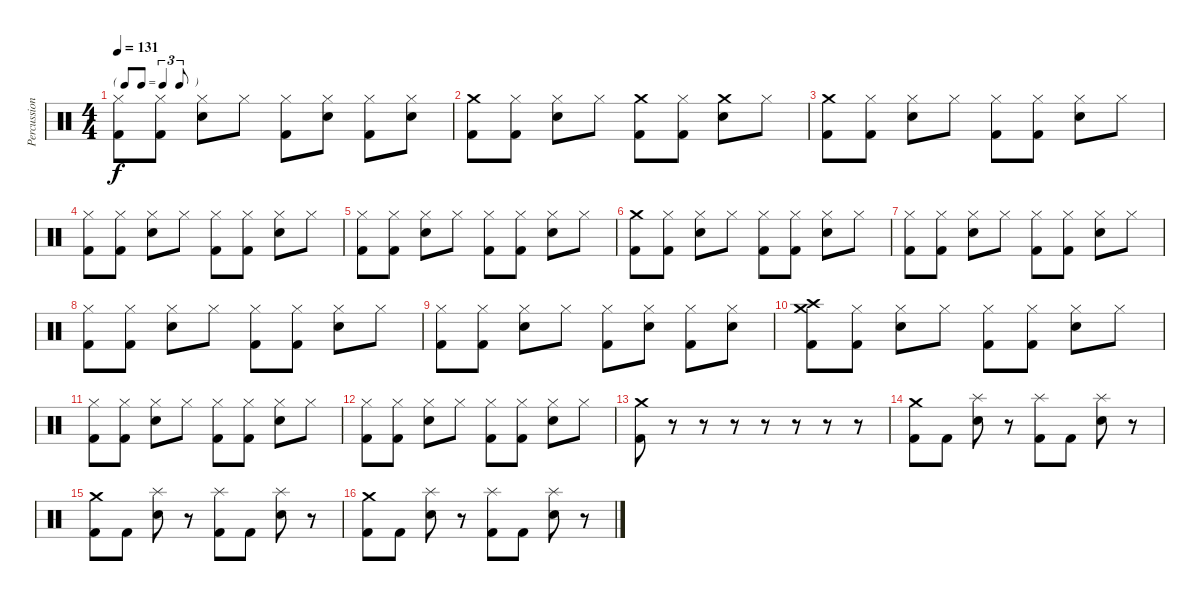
\track ("Percussioni" "Percussion") {instrument percussion}
\staff {score}
\articulation defaults
\ts (4 4)
\tf triplet8th
\tempo 131
\clef neutral
\ks c
("Hi-Hat (closed)" "Kick (hit) 2").8{dy f} ("Hi-Hat (closed)" "Kick (hit) 2").8 ("Hi-Hat (closed)" "Electric Snare (hit)").8 "Hi-Hat (closed)".8 ("Hi-Hat (closed)" "Kick (hit) 2").8 ("Hi-Hat (closed)" "Electric Snare (hit)").8 ("Hi-Hat (closed)" "Kick (hit) 2").8 ("Hi-Hat (closed)" "Electric Snare (hit)").8 |
("Crash medium (hit)" "Kick (hit) 2").8 ("Hi-Hat (closed)" "Kick (hit) 2").8 ("Hi-Hat (closed)" "Electric Snare (hit)").8 "Hi-Hat (closed)".8 ("Crash medium (hit)" "Kick (hit) 2").8 ("Hi-Hat (closed)" "Kick (hit) 2").8 ("Crash medium (hit)" "Electric Snare (hit)").8 "Hi-Hat (closed)".8 |
("Crash medium (hit)" "Kick (hit) 2").8 ("Hi-Hat (closed)" "Kick (hit) 2").8 ("Hi-Hat (closed)" "Electric Snare (hit)").8 "Hi-Hat (closed)".8 ("Hi-Hat (closed)" "Kick (hit) 2").8 ("Hi-Hat (closed)" "Kick (hit) 2").8 ("Hi-Hat (closed)" "Electric Snare (hit)").8 "Hi-Hat (closed)".8 |
("Hi-Hat (closed)" "Kick (hit) 2").8 ("Hi-Hat (closed)" "Kick (hit) 2").8 ("Hi-Hat (closed)" "Electric Snare (hit)").8 "Hi-Hat (closed)".8 ("Hi-Hat (closed)" "Kick (hit) 2").8 ("Hi-Hat (closed)" "Kick (hit) 2").8 ("Hi-Hat (closed)" "Electric Snare (hit)").8 "Hi-Hat (closed)".8 |
("Hi-Hat (closed)" "Kick (hit) 2").8 ("Hi-Hat (closed)" "Kick (hit) 2").8 ("Hi-Hat (closed)" "Electric Snare (hit)").8 "Hi-Hat (closed)".8 ("Hi-Hat (closed)" "Kick (hit) 2").8 ("Hi-Hat (closed)" "Kick (hit) 2").8 ("Hi-Hat (closed)" "Electric Snare (hit)").8 "Hi-Hat (closed)".8 |
("Crash medium (hit)" "Kick (hit) 2").8 ("Hi-Hat (closed)" "Kick (hit) 2").8 ("Hi-Hat (closed)" "Electric Snare (hit)").8 "Hi-Hat (closed)".8 ("Hi-Hat (closed)" "Kick (hit) 2").8 ("Hi-Hat (closed)" "Kick (hit) 2").8 ("Hi-Hat (closed)" "Electric Snare (hit)").8 "Hi-Hat (closed)".8 |
("Hi-Hat (closed)" "Kick (hit) 2").8 ("Hi-Hat (closed)" "Kick (hit) 2").8 ("Hi-Hat (closed)" "Electric Snare (hit)").8 "Hi-Hat (closed)".8 ("Hi-Hat (closed)" "Kick (hit) 2").8 ("Hi-Hat (closed)" "Kick (hit) 2").8 ("Hi-Hat (closed)" "Electric Snare (hit)").8 "Hi-Hat (closed)".8 |
("Hi-Hat (closed)" "Kick (hit) 2").8 ("Hi-Hat (closed)" "Kick (hit) 2").8 ("Hi-Hat (closed)" "Electric Snare (hit)").8 "Hi-Hat (closed)".8 ("Hi-Hat (closed)" "Kick (hit) 2").8 ("Hi-Hat (closed)" "Kick (hit) 2").8 ("Hi-Hat (closed)" "Electric Snare (hit)").8 "Hi-Hat (closed)".8 |
("Hi-Hat (closed)" "Kick (hit) 2").8 ("Hi-Hat (closed)" "Kick (hit) 2").8 ("Hi-Hat (closed)" "Electric Snare (hit)").8 "Hi-Hat (closed)".8 ("Hi-Hat (closed)" "Kick (hit) 2").8 ("Hi-Hat (closed)" "Electric Snare (hit)").8 ("Hi-Hat (closed)" "Kick (hit) 2").8 ("Hi-Hat (closed)" "Electric Snare (hit)").8 |
("Crash medium (hit)" "Crash high (hit)" "Kick (hit) 2").8 ("Hi-Hat (closed)" "Kick (hit) 2").8 ("Hi-Hat (closed)" "Electric Snare (hit)").8 "Hi-Hat (closed)".8 ("Hi-Hat (closed)" "Kick (hit) 2").8 ("Hi-Hat (closed)" "Kick (hit) 2").8 ("Hi-Hat (closed)" "Electric Snare (hit)").8 "Hi-Hat (closed)".8 |
("Hi-Hat (closed)" "Kick (hit) 2").8 ("Hi-Hat (closed)" "Kick (hit) 2").8 ("Hi-Hat (closed)" "Electric Snare (hit)").8 "Hi-Hat (closed)".8 ("Hi-Hat (closed)" "Kick (hit) 2").8 ("Hi-Hat (closed)" "Kick (hit) 2").8 ("Hi-Hat (closed)" "Electric Snare (hit)").8 "Hi-Hat (closed)".8 |
("Hi-Hat (closed)" "Kick (hit) 2").8 ("Hi-Hat (closed)" "Kick (hit) 2").8 ("Hi-Hat (closed)" "Electric Snare (hit)").8 "Hi-Hat (closed)".8 ("Hi-Hat (closed)" "Kick (hit) 2").8 ("Hi-Hat (closed)" "Kick (hit) 2").8 ("Hi-Hat (closed)" "Electric Snare (hit)").8 "Hi-Hat (closed)".8 |
("Crash medium (hit)" "Kick (hit) 2").8 r.8 r.8 r.8 r.8 r.8 r.8 r.8 |
("Crash medium (hit)" "Kick (hit) 2").8 "Kick (hit) 2".8 ("Splash (hit)" "Electric Snare (hit)").8 r.8 ("Splash (hit)" "Kick (hit) 2").8 "Kick (hit) 2".8 ("Splash (hit)" "Electric Snare (hit)").8 r.8 |
("Crash medium (hit)" "Kick (hit) 2").8 "Kick (hit) 2".8 ("Splash (hit)" "Electric Snare (hit)").8 r.8 ("Splash (hit)" "Kick (hit) 2").8 "Kick (hit) 2".8 ("Splash (hit)" "Electric Snare (hit)").8 r.8 |
("Crash medium (hit)" "Kick (hit) 2").8 "Kick (hit) 2".8 ("Splash (hit)" "Electric Snare (hit)").8 r.8 ("Splash (hit)" "Kick (hit) 2").8 "Kick (hit) 2".8 ("Splash (hit)" "Electric Snare (hit)").8 r.8
